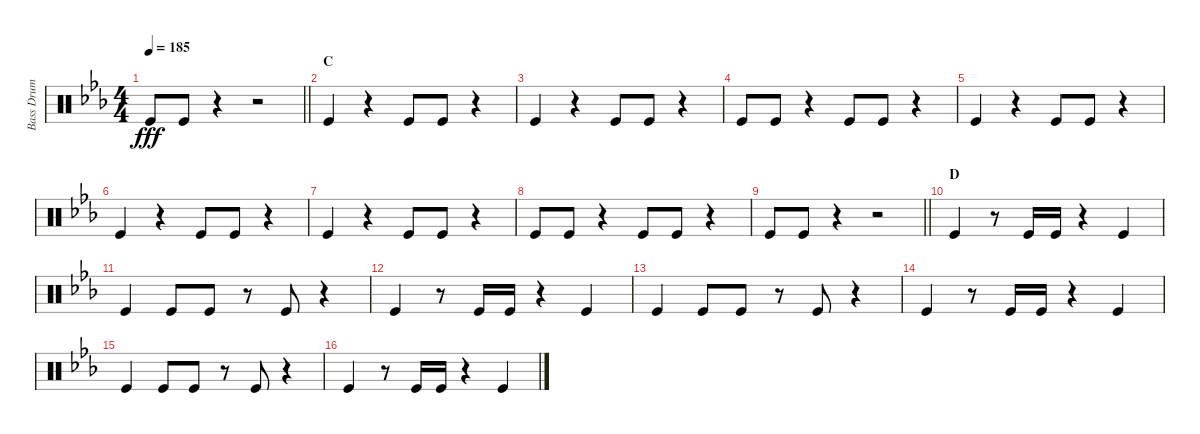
\track ("Bass Drum" "Bass Drum") {instrument percussion}
\staff {score}
\articulation defaults
\ts (4 4)
\tempo 185
\clef neutral
\barLineRight lightlight
\ks eb "Kick (hit)".8{dy fff} "Kick (hit)".8
r.4 r.2 |
\section ("" "C")
"Kick (hit)".4 r.4 "Kick (hit)".8 "Kick (hit)".8 r.4 |
"Kick (hit)".4 r.4 "Kick (hit)".8 "Kick (hit)".8 r.4 |
"Kick (hit)".8 "Kick (hit)".8 r.4 "Kick (hit)".8 "Kick (hit)".8 r.4 |
"Kick (hit)".4 r.4 "Kick (hit)".8 "Kick (hit)".8 r.4 |
"Kick (hit)".4 r.4 "Kick (hit)".8 "Kick (hit)".8 r.4 |
"Kick (hit)".4 r.4 "Kick (hit)".8 "Kick (hit)".8 r.4 |
"Kick (hit)".8 "Kick (hit)".8 r.4 "Kick (hit)".8 "Kick (hit)".8 r.4 |
\barLineRight lightlight "Kick (hit)".8 "Kick (hit)".8
r.4 r.2 |
\section ("" "D")
"Kick (hit)".4 r.8 "Kick (hit)".16 "Kick (hit)".16 r.4 "Kick (hit)".4 |
"Kick (hit)".4 "Kick (hit)".8 "Kick (hit)".8 r.8 "Kick (hit)".8 r.4 |
"Kick (hit)".4 r.8 "Kick (hit)".16 "Kick (hit)".16 r.4 "Kick (hit)".4 |
"Kick (hit)".4 "Kick (hit)".8 "Kick (hit)".8 r.8 "Kick (hit)".8 r.4 |
"Kick (hit)".4 r.8 "Kick (hit)".16 "Kick (hit)".16 r.4 "Kick (hit)".4 |
"Kick (hit)".4 "Kick (hit)".8 "Kick (hit)".8 r.8 "Kick (hit)".8 r.4 |
"Kick (hit)".4 r.8 "Kick (hit)".16 "Kick (hit)".16 r.4 "Kick (hit)".4
